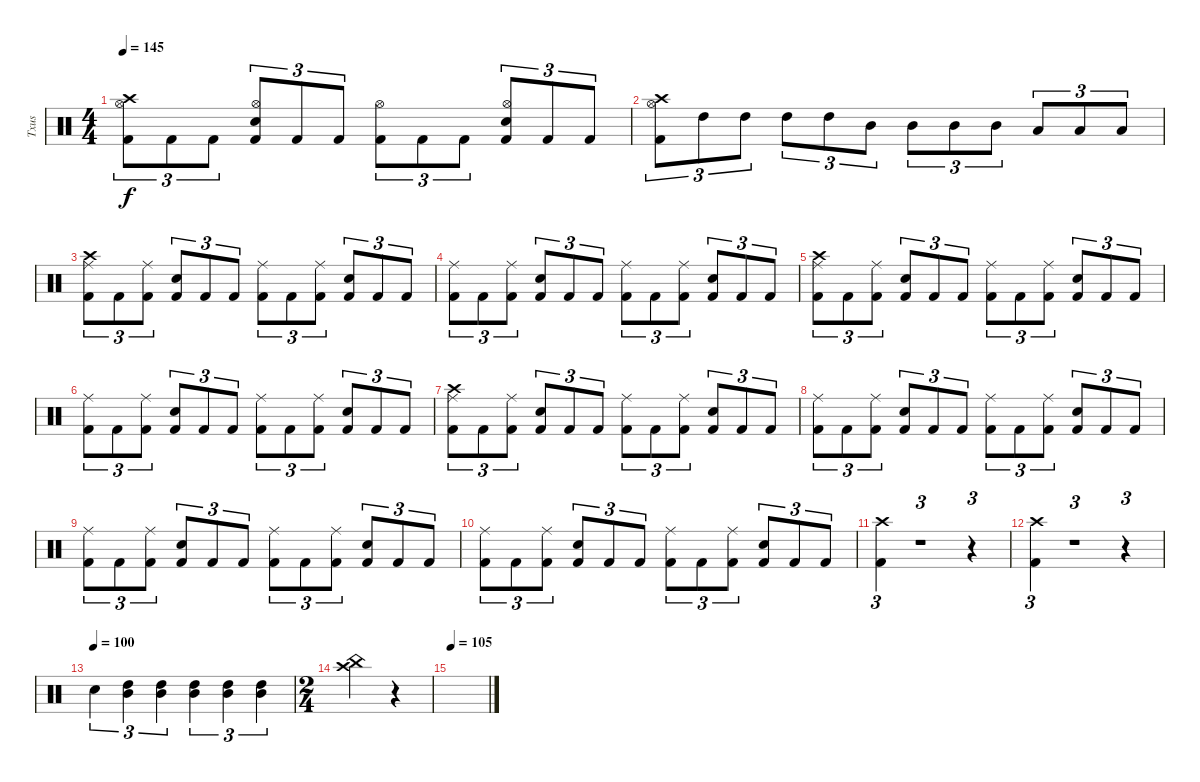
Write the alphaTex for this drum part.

\track ("Txus" "Txus") {instrument percussion}
\staff {score}
\articulation defaults
\ts (4 4)
\tempo 145
\clef neutral
\ks c
("Kick (hit) 2" "Hi-Hat (open)" "Crash high (hit)").8{tu (3 2) dy f} "Kick (hit) 2".8{tu (3 2)} "Kick (hit) 2".8{tu (3 2)} ("Kick (hit) 2" "Hi-Hat (open)" "Electric Snare (hit)").8{tu (3 2)} "Kick (hit) 2".8{tu (3 2)} "Kick (hit) 2".8{tu (3 2)} ("Kick (hit) 2" "Hi-Hat (open)").8{tu (3 2)} "Kick (hit) 2".8{tu (3 2)} "Kick (hit) 2".8{tu (3 2)} ("Kick (hit) 2" "Hi-Hat (open)" "Electric Snare (hit)").8{tu (3 2)} "Kick (hit) 2".8{tu (3 2)} "Kick (hit) 2".8{tu (3 2)} |
("Kick (hit) 2" "Hi-Hat (open)" "Crash high (hit)").8{tu (3 2)} "High Tom (hit)".8{tu (3 2)} "High Tom (hit)".8{tu (3 2)} "High Tom (hit)".8{tu (3 2)} "High Tom (hit)".8{tu (3 2)} "Mid Tom (hit)".8{tu (3 2)} "Mid Tom (hit)".8{tu (3 2)} "Mid Tom (hit)".8{tu (3 2)} "Mid Tom (hit)".8{tu (3 2)} "Low Tom (hit)".8{tu (3 2)} "Low Tom (hit)".8{tu (3 2)} "Low Tom (hit)".8{tu (3 2)} |
("Kick (hit) 2" "Ride (middle)" "Crash high (hit)").8{tu (3 2)} "Kick (hit) 2".8{tu (3 2)} ("Kick (hit) 2" "Ride (middle)").8{tu (3 2)} ("Kick (hit) 2" "Electric Snare (hit)").8{tu (3 2)} "Kick (hit) 2".8{tu (3 2)} "Kick (hit) 2".8{tu (3 2)} ("Kick (hit) 2" "Ride (middle)").8{tu (3 2)} "Kick (hit) 2".8{tu (3 2)} ("Kick (hit) 2" "Ride (middle)").8{tu (3 2)} ("Kick (hit) 2" "Electric Snare (hit)").8{tu (3 2)} "Kick (hit) 2".8{tu (3 2)} "Kick (hit) 2".8{tu (3 2)} |
("Kick (hit) 2" "Ride (middle)").8{tu (3 2)} "Kick (hit) 2".8{tu (3 2)} ("Kick (hit) 2" "Ride (middle)").8{tu (3 2)} ("Kick (hit) 2" "Electric Snare (hit)").8{tu (3 2)} "Kick (hit) 2".8{tu (3 2)} "Kick (hit) 2".8{tu (3 2)} ("Kick (hit) 2" "Ride (middle)").8{tu (3 2)} "Kick (hit) 2".8{tu (3 2)} ("Kick (hit) 2" "Ride (middle)").8{tu (3 2)} ("Kick (hit) 2" "Electric Snare (hit)").8{tu (3 2)} "Kick (hit) 2".8{tu (3 2)} "Kick (hit) 2".8{tu (3 2)} |
("Kick (hit) 2" "Ride (middle)" "Crash high (hit)").8{tu (3 2)} "Kick (hit) 2".8{tu (3 2)} ("Kick (hit) 2" "Ride (middle)").8{tu (3 2)} ("Kick (hit) 2" "Electric Snare (hit)").8{tu (3 2)} "Kick (hit) 2".8{tu (3 2)} "Kick (hit) 2".8{tu (3 2)} ("Kick (hit) 2" "Ride (middle)").8{tu (3 2)} "Kick (hit) 2".8{tu (3 2)} ("Kick (hit) 2" "Ride (middle)").8{tu (3 2)} ("Kick (hit) 2" "Electric Snare (hit)").8{tu (3 2)} "Kick (hit) 2".8{tu (3 2)} "Kick (hit) 2".8{tu (3 2)} |
("Kick (hit) 2" "Ride (middle)").8{tu (3 2)} "Kick (hit) 2".8{tu (3 2)} ("Kick (hit) 2" "Ride (middle)").8{tu (3 2)} ("Kick (hit) 2" "Electric Snare (hit)").8{tu (3 2)} "Kick (hit) 2".8{tu (3 2)} "Kick (hit) 2".8{tu (3 2)} ("Kick (hit) 2" "Ride (middle)").8{tu (3 2)} "Kick (hit) 2".8{tu (3 2)} ("Kick (hit) 2" "Ride (middle)").8{tu (3 2)} ("Kick (hit) 2" "Electric Snare (hit)").8{tu (3 2)} "Kick (hit) 2".8{tu (3 2)} "Kick (hit) 2".8{tu (3 2)} |
("Kick (hit) 2" "Ride (middle)" "Crash high (hit)").8{tu (3 2)} "Kick (hit) 2".8{tu (3 2)} ("Kick (hit) 2" "Ride (middle)").8{tu (3 2)} ("Kick (hit) 2" "Electric Snare (hit)").8{tu (3 2)} "Kick (hit) 2".8{tu (3 2)} "Kick (hit) 2".8{tu (3 2)} ("Kick (hit) 2" "Ride (middle)").8{tu (3 2)} "Kick (hit) 2".8{tu (3 2)} ("Kick (hit) 2" "Ride (middle)").8{tu (3 2)} ("Kick (hit) 2" "Electric Snare (hit)").8{tu (3 2)} "Kick (hit) 2".8{tu (3 2)} "Kick (hit) 2".8{tu (3 2)} |
("Kick (hit) 2" "Ride (middle)").8{tu (3 2)} "Kick (hit) 2".8{tu (3 2)} ("Kick (hit) 2" "Ride (middle)").8{tu (3 2)} ("Kick (hit) 2" "Electric Snare (hit)").8{tu (3 2)} "Kick (hit) 2".8{tu (3 2)} "Kick (hit) 2".8{tu (3 2)} ("Kick (hit) 2" "Ride (middle)").8{tu (3 2)} "Kick (hit) 2".8{tu (3 2)} ("Kick (hit) 2" "Ride (middle)").8{tu (3 2)} ("Kick (hit) 2" "Electric Snare (hit)").8{tu (3 2)} "Kick (hit) 2".8{tu (3 2)} "Kick (hit) 2".8{tu (3 2)} |
("Kick (hit) 2" "Ride (middle)").8{tu (3 2)} "Kick (hit) 2".8{tu (3 2)} ("Kick (hit) 2" "Ride (middle)").8{tu (3 2)} ("Kick (hit) 2" "Electric Snare (hit)").8{tu (3 2)} "Kick (hit) 2".8{tu (3 2)} "Kick (hit) 2".8{tu (3 2)} ("Kick (hit) 2" "Ride (middle)").8{tu (3 2)} "Kick (hit) 2".8{tu (3 2)} ("Kick (hit) 2" "Ride (middle)").8{tu (3 2)} ("Kick (hit) 2" "Electric Snare (hit)").8{tu (3 2)} "Kick (hit) 2".8{tu (3 2)} "Kick (hit) 2".8{tu (3 2)} |
("Kick (hit) 2" "Ride (middle)").8{tu (3 2)} "Kick (hit) 2".8{tu (3 2)} ("Kick (hit) 2" "Ride (middle)").8{tu (3 2)} ("Kick (hit) 2" "Electric Snare (hit)").8{tu (3 2)} "Kick (hit) 2".8{tu (3 2)} "Kick (hit) 2".8{tu (3 2)} ("Kick (hit) 2" "Ride (middle)").8{tu (3 2)} "Kick (hit) 2".8{tu (3 2)} ("Kick (hit) 2" "Ride (middle)").8{tu (3 2)} ("Kick (hit) 2" "Electric Snare (hit)").8{tu (3 2)} "Kick (hit) 2".8{tu (3 2)} "Kick (hit) 2".8{tu (3 2)} |
("Kick (hit) 2" "Crash high (hit)").4{tu (3 2)} r.1{tu (3 2)} r.4{tu (3 2)} |
("Kick (hit) 2" "Crash high (hit)").4{tu (3 2)} r.1{tu (3 2)} r.4{tu (3 2)} |
\tempo (100)
"Electric Snare (hit)".4{tu (3 2)} ("High Tom (hit)" "Mid Tom (hit)").4{tu (3 2)} ("High Tom (hit)" "Mid Tom (hit)").4{tu (3 2)} ("High Tom (hit)" "Mid Tom (hit)").4{tu (3 2)} ("High Tom (hit)" "Mid Tom (hit)").4{tu (3 2)} ("High Tom (hit)" "Mid Tom (hit)").4{tu (3 2)} |
\ts (2 4)
("Crash high (hit)" "China (hit)").4 r.4 |
\tempo 105
